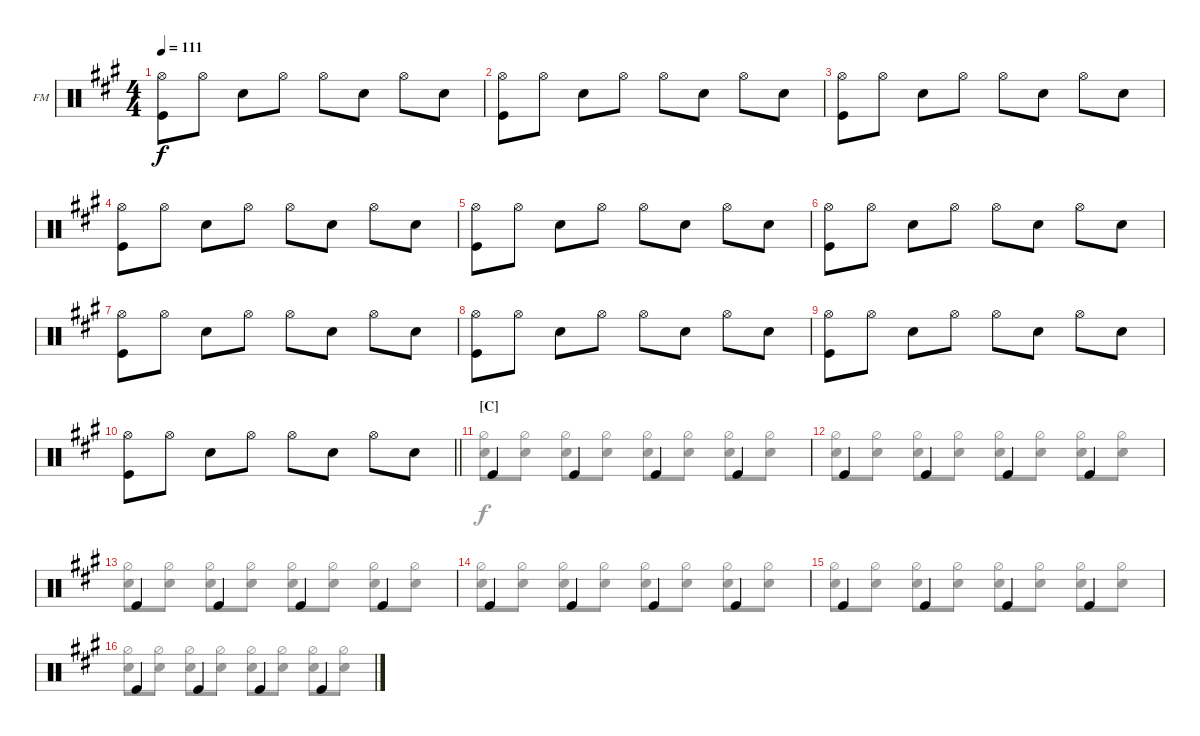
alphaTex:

\defaultSystemsLayout 4
\bracketExtendMode groupsimilarinstruments
\firstSystemTrackNameOrientation horizontal
\otherSystemsTrackNameOrientation horizontal
\track ("Fabrizio Moretti" "FM") {instrument percussion}
\staff {score}
\articulation defaults
\voice
\ts (4 4)
\tempo 111
\clef neutral
\ks a
("Kick (hit)" "Hi-Hat (open)").8{dy f} "Hi-Hat (open)".8 "Snare (hit) 2".8 "Hi-Hat (open)".8 "Hi-Hat (open)".8 "Snare (hit) 2".8 "Hi-Hat (open)".8 "Snare (hit) 2".8 |
("Kick (hit)" "Hi-Hat (open)").8 "Hi-Hat (open)".8 "Snare (hit) 2".8 "Hi-Hat (open)".8 "Hi-Hat (open)".8 "Snare (hit) 2".8 "Hi-Hat (open)".8 "Snare (hit) 2".8 |
("Kick (hit)" "Hi-Hat (open)").8 "Hi-Hat (open)".8 "Snare (hit) 2".8 "Hi-Hat (open)".8 "Hi-Hat (open)".8 "Snare (hit) 2".8 "Hi-Hat (open)".8 "Snare (hit) 2".8 |
("Kick (hit)" "Hi-Hat (open)").8 "Hi-Hat (open)".8 "Snare (hit) 2".8 "Hi-Hat (open)".8 "Hi-Hat (open)".8 "Snare (hit) 2".8 "Hi-Hat (open)".8 "Snare (hit) 2".8 |
("Kick (hit)" "Hi-Hat (open)").8 "Hi-Hat (open)".8 "Snare (hit) 2".8 "Hi-Hat (open)".8 "Hi-Hat (open)".8 "Snare (hit) 2".8 "Hi-Hat (open)".8 "Snare (hit) 2".8 |
("Kick (hit)" "Hi-Hat (open)").8 "Hi-Hat (open)".8 "Snare (hit) 2".8 "Hi-Hat (open)".8 "Hi-Hat (open)".8 "Snare (hit) 2".8 "Hi-Hat (open)".8 "Snare (hit) 2".8 |
("Kick (hit)" "Hi-Hat (open)").8 "Hi-Hat (open)".8 "Snare (hit) 2".8 "Hi-Hat (open)".8 "Hi-Hat (open)".8 "Snare (hit) 2".8 "Hi-Hat (open)".8 "Snare (hit) 2".8 |
("Kick (hit)" "Hi-Hat (open)").8 "Hi-Hat (open)".8 "Snare (hit) 2".8 "Hi-Hat (open)".8 "Hi-Hat (open)".8 "Snare (hit) 2".8 "Hi-Hat (open)".8 "Snare (hit) 2".8 |
("Kick (hit)" "Hi-Hat (open)").8 "Hi-Hat (open)".8 "Snare (hit) 2".8 "Hi-Hat (open)".8 "Hi-Hat (open)".8 "Snare (hit) 2".8 "Hi-Hat (open)".8 "Snare (hit) 2".8 |
\barLineRight lightlight
("Kick (hit)" "Hi-Hat (open)").8 "Hi-Hat (open)".8 "Snare (hit) 2".8 "Hi-Hat (open)".8 "Hi-Hat (open)".8 "Snare (hit) 2".8 "Hi-Hat (open)".8 "Snare (hit) 2".8 |
\section ("C" "")
"Kick (hit)".4 "Kick (hit)".4 "Kick (hit)".4 "Kick (hit)".4 |
"Kick (hit)".4 "Kick (hit)".4 "Kick (hit)".4 "Kick (hit)".4 |
"Kick (hit)".4 "Kick (hit)".4 "Kick (hit)".4 "Kick (hit)".4 |
"Kick (hit)".4 "Kick (hit)".4 "Kick (hit)".4 "Kick (hit)".4 |
"Kick (hit)".4 "Kick (hit)".4 "Kick (hit)".4 "Kick (hit)".4 |
"Kick (hit)".4 "Kick (hit)".4 "Kick (hit)".4 "Kick (hit)".4
\voice
\clef neutral
\ottava regular
\simile none
\ks a
|
|
|
|
|
|
|
|
|
\barLineRight lightlight
|
("Snare (hit) 2" "Hi-Hat (half)").8 ("Snare (hit) 2" "Hi-Hat (half)").8 ("Snare (hit) 2" "Hi-Hat (half)").8 ("Snare (hit) 2" "Hi-Hat (half)").8 ("Snare (hit) 2" "Hi-Hat (half)").8 ("Snare (hit) 2" "Hi-Hat (half)").8 ("Snare (hit) 2" "Hi-Hat (half)").8 ("Snare (hit) 2" "Hi-Hat (half)").8 |
("Snare (hit) 2" "Hi-Hat (half)").8 ("Snare (hit) 2" "Hi-Hat (half)").8 ("Snare (hit) 2" "Hi-Hat (half)").8 ("Snare (hit) 2" "Hi-Hat (half)").8 ("Snare (hit) 2" "Hi-Hat (half)").8 ("Snare (hit) 2" "Hi-Hat (half)").8 ("Snare (hit) 2" "Hi-Hat (half)").8 ("Snare (hit) 2" "Hi-Hat (half)").8 |
("Snare (hit) 2" "Hi-Hat (half)").8 ("Snare (hit) 2" "Hi-Hat (half)").8 ("Snare (hit) 2" "Hi-Hat (half)").8 ("Snare (hit) 2" "Hi-Hat (half)").8 ("Snare (hit) 2" "Hi-Hat (half)").8 ("Snare (hit) 2" "Hi-Hat (half)").8 ("Snare (hit) 2" "Hi-Hat (half)").8 ("Snare (hit) 2" "Hi-Hat (half)").8 |
("Snare (hit) 2" "Hi-Hat (half)").8 ("Snare (hit) 2" "Hi-Hat (half)").8 ("Snare (hit) 2" "Hi-Hat (half)").8 ("Snare (hit) 2" "Hi-Hat (half)").8 ("Snare (hit) 2" "Hi-Hat (half)").8 ("Snare (hit) 2" "Hi-Hat (half)").8 ("Snare (hit) 2" "Hi-Hat (half)").8 ("Snare (hit) 2" "Hi-Hat (half)").8 |
("Snare (hit) 2" "Hi-Hat (half)").8 ("Snare (hit) 2" "Hi-Hat (half)").8 ("Snare (hit) 2" "Hi-Hat (half)").8 ("Snare (hit) 2" "Hi-Hat (half)").8 ("Snare (hit) 2" "Hi-Hat (half)").8 ("Snare (hit) 2" "Hi-Hat (half)").8 ("Snare (hit) 2" "Hi-Hat (half)").8 ("Snare (hit) 2" "Hi-Hat (half)").8 |
("Snare (hit) 2" "Hi-Hat (half)").8 ("Snare (hit) 2" "Hi-Hat (half)").8 ("Snare (hit) 2" "Hi-Hat (half)").8 ("Snare (hit) 2" "Hi-Hat (half)").8 ("Snare (hit) 2" "Hi-Hat (half)").8 ("Snare (hit) 2" "Hi-Hat (half)").8 ("Snare (hit) 2" "Hi-Hat (half)").8 ("Snare (hit) 2" "Hi-Hat (half)").8
